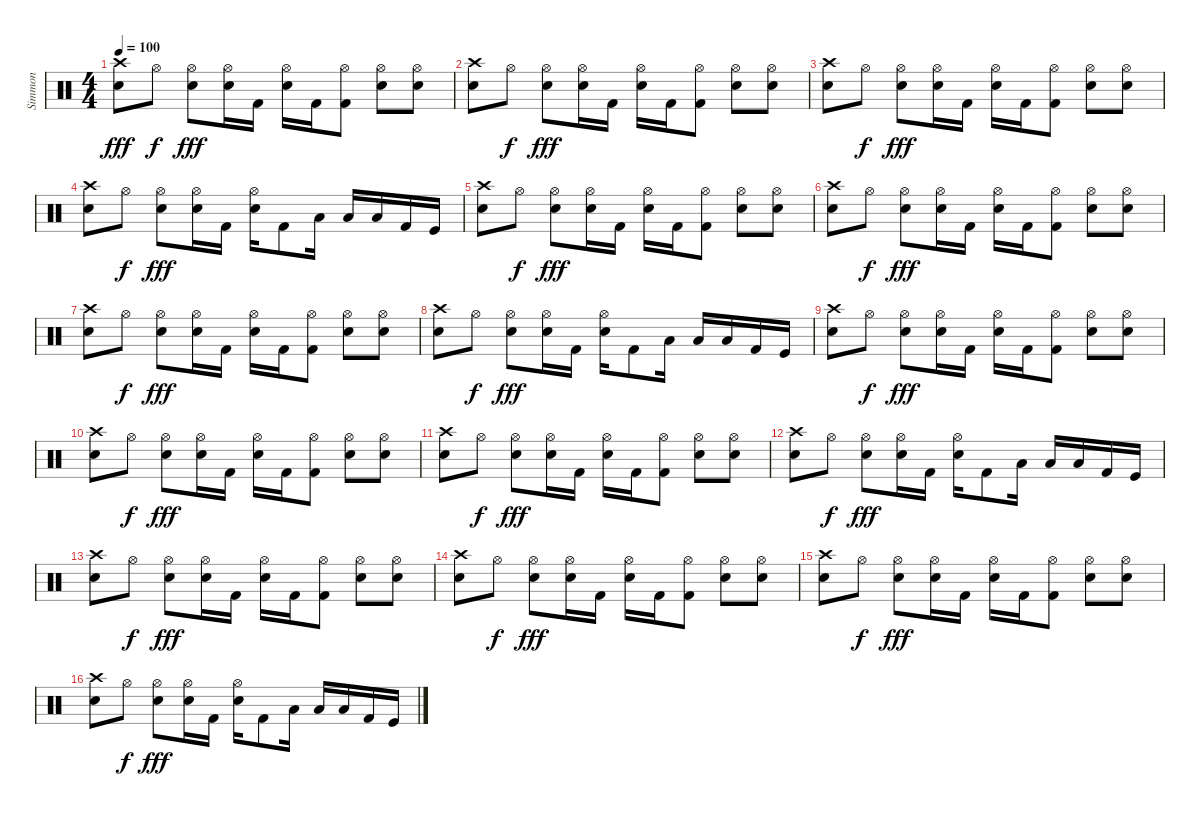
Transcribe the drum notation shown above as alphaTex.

\track ("Simmon" "Simmon") {instrument percussion}
\staff {score}
\articulation defaults
\ts (4 4)
\tempo 100
\clef neutral
\ks c
("Electric Snare (hit)" "Crash high (hit)").8{dy fff} "Hi-Hat (open)".8{dy f} ("Electric Snare (hit)" "Hi-Hat (open)").8{dy fff} ("Electric Snare (hit)" "Hi-Hat (open)").16 "Kick (hit) 2".16 ("Electric Snare (hit)" "Hi-Hat (open)").16 "Kick (hit) 2".16 ("Kick (hit) 2" "Hi-Hat (open)").8 ("Electric Snare (hit)" "Hi-Hat (open)").8 ("Electric Snare (hit)" "Hi-Hat (open)").8 |
("Electric Snare (hit)" "Crash high (hit)").8 "Hi-Hat (open)".8{dy f} ("Electric Snare (hit)" "Hi-Hat (open)").8{dy fff} ("Electric Snare (hit)" "Hi-Hat (open)").16 "Kick (hit) 2".16 ("Electric Snare (hit)" "Hi-Hat (open)").16 "Kick (hit) 2".16 ("Kick (hit) 2" "Hi-Hat (open)").8 ("Electric Snare (hit)" "Hi-Hat (open)").8 ("Electric Snare (hit)" "Hi-Hat (open)").8 |
("Electric Snare (hit)" "Crash high (hit)").8 "Hi-Hat (open)".8{dy f} ("Electric Snare (hit)" "Hi-Hat (open)").8{dy fff} ("Electric Snare (hit)" "Hi-Hat (open)").16 "Kick (hit) 2".16 ("Electric Snare (hit)" "Hi-Hat (open)").16 "Kick (hit) 2".16 ("Kick (hit) 2" "Hi-Hat (open)").8 ("Electric Snare (hit)" "Hi-Hat (open)").8 ("Electric Snare (hit)" "Hi-Hat (open)").8 |
("Electric Snare (hit)" "Crash high (hit)").8 "Hi-Hat (open)".8{dy f} ("Electric Snare (hit)" "Hi-Hat (open)").8{dy fff} ("Electric Snare (hit)" "Hi-Hat (open)").16 "Kick (hit) 2".16 ("Electric Snare (hit)" "Hi-Hat (open)").16 "Kick (hit) 2".8 "Low Floor Tom (hit)".16 "Low Floor Tom (hit)".16 "Low Floor Tom (hit)".16 "Kick (hit) 2".16 "Kick (hit)".16 |
("Electric Snare (hit)" "Crash high (hit)").8 "Hi-Hat (open)".8{dy f} ("Electric Snare (hit)" "Hi-Hat (open)").8{dy fff} ("Electric Snare (hit)" "Hi-Hat (open)").16 "Kick (hit) 2".16 ("Electric Snare (hit)" "Hi-Hat (open)").16 "Kick (hit) 2".16 ("Kick (hit) 2" "Hi-Hat (open)").8 ("Electric Snare (hit)" "Hi-Hat (open)").8 ("Electric Snare (hit)" "Hi-Hat (open)").8 |
("Electric Snare (hit)" "Crash high (hit)").8 "Hi-Hat (open)".8{dy f} ("Electric Snare (hit)" "Hi-Hat (open)").8{dy fff} ("Electric Snare (hit)" "Hi-Hat (open)").16 "Kick (hit) 2".16 ("Electric Snare (hit)" "Hi-Hat (open)").16 "Kick (hit) 2".16 ("Kick (hit) 2" "Hi-Hat (open)").8 ("Electric Snare (hit)" "Hi-Hat (open)").8 ("Electric Snare (hit)" "Hi-Hat (open)").8 |
("Electric Snare (hit)" "Crash high (hit)").8 "Hi-Hat (open)".8{dy f} ("Electric Snare (hit)" "Hi-Hat (open)").8{dy fff} ("Electric Snare (hit)" "Hi-Hat (open)").16 "Kick (hit) 2".16 ("Electric Snare (hit)" "Hi-Hat (open)").16 "Kick (hit) 2".16 ("Kick (hit) 2" "Hi-Hat (open)").8 ("Electric Snare (hit)" "Hi-Hat (open)").8 ("Electric Snare (hit)" "Hi-Hat (open)").8 |
("Electric Snare (hit)" "Crash high (hit)").8 "Hi-Hat (open)".8{dy f} ("Electric Snare (hit)" "Hi-Hat (open)").8{dy fff} ("Electric Snare (hit)" "Hi-Hat (open)").16 "Kick (hit) 2".16 ("Electric Snare (hit)" "Hi-Hat (open)").16 "Kick (hit) 2".8 "Low Floor Tom (hit)".16 "Low Floor Tom (hit)".16 "Low Floor Tom (hit)".16 "Kick (hit) 2".16 "Kick (hit)".16 |
("Electric Snare (hit)" "Crash high (hit)").8 "Hi-Hat (open)".8{dy f} ("Electric Snare (hit)" "Hi-Hat (open)").8{dy fff} ("Electric Snare (hit)" "Hi-Hat (open)").16 "Kick (hit) 2".16 ("Electric Snare (hit)" "Hi-Hat (open)").16 "Kick (hit) 2".16 ("Kick (hit) 2" "Hi-Hat (open)").8 ("Electric Snare (hit)" "Hi-Hat (open)").8 ("Electric Snare (hit)" "Hi-Hat (open)").8 |
("Electric Snare (hit)" "Crash high (hit)").8 "Hi-Hat (open)".8{dy f} ("Electric Snare (hit)" "Hi-Hat (open)").8{dy fff} ("Electric Snare (hit)" "Hi-Hat (open)").16 "Kick (hit) 2".16 ("Electric Snare (hit)" "Hi-Hat (open)").16 "Kick (hit) 2".16 ("Kick (hit) 2" "Hi-Hat (open)").8 ("Electric Snare (hit)" "Hi-Hat (open)").8 ("Electric Snare (hit)" "Hi-Hat (open)").8 |
("Electric Snare (hit)" "Crash high (hit)").8 "Hi-Hat (open)".8{dy f} ("Electric Snare (hit)" "Hi-Hat (open)").8{dy fff} ("Electric Snare (hit)" "Hi-Hat (open)").16 "Kick (hit) 2".16 ("Electric Snare (hit)" "Hi-Hat (open)").16 "Kick (hit) 2".16 ("Kick (hit) 2" "Hi-Hat (open)").8 ("Electric Snare (hit)" "Hi-Hat (open)").8 ("Electric Snare (hit)" "Hi-Hat (open)").8 |
("Electric Snare (hit)" "Crash high (hit)").8 "Hi-Hat (open)".8{dy f} ("Electric Snare (hit)" "Hi-Hat (open)").8{dy fff} ("Electric Snare (hit)" "Hi-Hat (open)").16 "Kick (hit) 2".16 ("Electric Snare (hit)" "Hi-Hat (open)").16 "Kick (hit) 2".8 "Low Floor Tom (hit)".16 "Low Floor Tom (hit)".16 "Low Floor Tom (hit)".16 "Kick (hit) 2".16 "Kick (hit)".16 |
("Electric Snare (hit)" "Crash high (hit)").8 "Hi-Hat (open)".8{dy f} ("Electric Snare (hit)" "Hi-Hat (open)").8{dy fff} ("Electric Snare (hit)" "Hi-Hat (open)").16 "Kick (hit) 2".16 ("Electric Snare (hit)" "Hi-Hat (open)").16 "Kick (hit) 2".16 ("Kick (hit) 2" "Hi-Hat (open)").8 ("Electric Snare (hit)" "Hi-Hat (open)").8 ("Electric Snare (hit)" "Hi-Hat (open)").8 |
("Electric Snare (hit)" "Crash high (hit)").8 "Hi-Hat (open)".8{dy f} ("Electric Snare (hit)" "Hi-Hat (open)").8{dy fff} ("Electric Snare (hit)" "Hi-Hat (open)").16 "Kick (hit) 2".16 ("Electric Snare (hit)" "Hi-Hat (open)").16 "Kick (hit) 2".16 ("Kick (hit) 2" "Hi-Hat (open)").8 ("Electric Snare (hit)" "Hi-Hat (open)").8 ("Electric Snare (hit)" "Hi-Hat (open)").8 |
("Electric Snare (hit)" "Crash high (hit)").8 "Hi-Hat (open)".8{dy f} ("Electric Snare (hit)" "Hi-Hat (open)").8{dy fff} ("Electric Snare (hit)" "Hi-Hat (open)").16 "Kick (hit) 2".16 ("Electric Snare (hit)" "Hi-Hat (open)").16 "Kick (hit) 2".16 ("Kick (hit) 2" "Hi-Hat (open)").8 ("Electric Snare (hit)" "Hi-Hat (open)").8 ("Electric Snare (hit)" "Hi-Hat (open)").8 |
("Electric Snare (hit)" "Crash high (hit)").8 "Hi-Hat (open)".8{dy f} ("Electric Snare (hit)" "Hi-Hat (open)").8{dy fff} ("Electric Snare (hit)" "Hi-Hat (open)").16 "Kick (hit) 2".16 ("Electric Snare (hit)" "Hi-Hat (open)").16 "Kick (hit) 2".8 "Low Floor Tom (hit)".16 "Low Floor Tom (hit)".16 "Low Floor Tom (hit)".16 "Kick (hit) 2".16 "Kick (hit)".16
